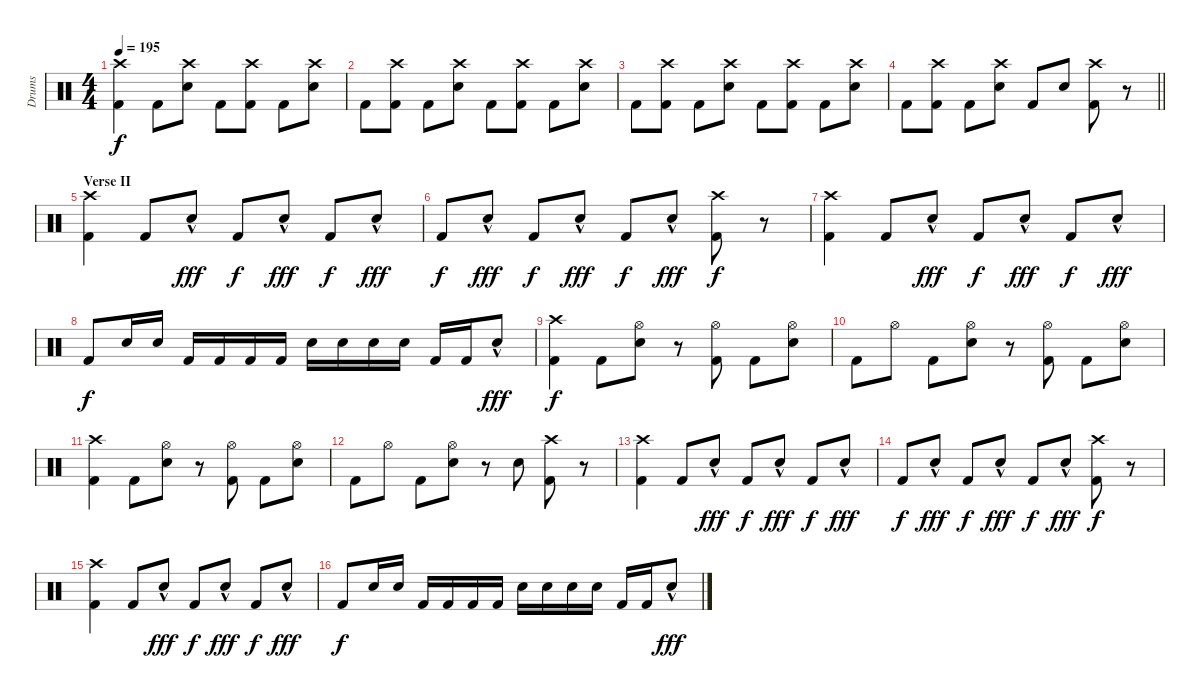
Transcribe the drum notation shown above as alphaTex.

\track ("Drums" "Drums") {instrument percussion}
\staff {score}
\articulation defaults
\ts (4 4)
\tempo 195
\clef neutral
\ks c
("Crash high (hit)" "Kick (hit) 2").4{dy f} "Kick (hit) 2".8 ("Crash high (hit)" "Electric Snare (hit)").8 "Kick (hit) 2".8 ("Crash high (hit)" "Kick (hit) 2").8 "Kick (hit) 2".8 ("Crash high (hit)" "Electric Snare (hit)").8 |
"Kick (hit) 2".8 ("Crash high (hit)" "Kick (hit) 2").8 "Kick (hit) 2".8 ("Crash high (hit)" "Electric Snare (hit)").8 "Kick (hit) 2".8 ("Crash high (hit)" "Kick (hit) 2").8 "Kick (hit) 2".8 ("Crash high (hit)" "Electric Snare (hit)").8 |
"Kick (hit) 2".8 ("Crash high (hit)" "Kick (hit) 2").8 "Kick (hit) 2".8 ("Crash high (hit)" "Electric Snare (hit)").8 "Kick (hit) 2".8 ("Crash high (hit)" "Kick (hit) 2").8 "Kick (hit) 2".8 ("Crash high (hit)" "Electric Snare (hit)").8 |
\barLineRight lightlight "Kick (hit) 2".8
("Crash high (hit)" "Kick (hit) 2").8 "Kick (hit) 2".8 ("Crash high (hit)" "Electric Snare (hit)").8 "Kick (hit) 2".8 "Electric Snare (hit)".8 ("Crash high (hit)" "Kick (hit) 2").8 r.8 |
\section ("" "Verse II")
("Crash high (hit)" "Kick (hit) 2").4 "Kick (hit) 2".8 "Electric Snare (hit)"{hac}.8{dy fff} "Kick (hit) 2".8{dy f} "Electric Snare (hit)"{hac}.8{dy fff} "Kick (hit) 2".8{dy f} "Electric Snare (hit)"{hac}.8{dy fff} |
"Kick (hit) 2".8{dy f} "Electric Snare (hit)"{hac}.8{dy fff} "Kick (hit) 2".8{dy f} "Electric Snare (hit)"{hac}.8{dy fff} "Kick (hit) 2".8{dy f} "Electric Snare (hit)"{hac}.8{dy fff} ("Crash high (hit)" "Kick (hit) 2").8{dy f} r.8 |
("Crash high (hit)" "Kick (hit) 2").4 "Kick (hit) 2".8 "Electric Snare (hit)"{hac}.8{dy fff} "Kick (hit) 2".8{dy f} "Electric Snare (hit)"{hac}.8{dy fff} "Kick (hit) 2".8{dy f} "Electric Snare (hit)"{hac}.8{dy fff} |
"Kick (hit) 2".8{dy f} "Electric Snare (hit)".16 "Electric Snare (hit)".16 "Kick (hit) 2".16 "Kick (hit) 2".16 "Kick (hit) 2".16 "Kick (hit) 2".16 "Electric Snare (hit)".16 "Electric Snare (hit)".16 "Electric Snare (hit)".16 "Electric Snare (hit)".16 "Kick (hit) 2".16 "Kick (hit) 2".16 "Electric Snare (hit)"{hac}.8{dy fff} |
("Crash high (hit)" "Kick (hit) 2").4{dy f} "Kick (hit) 2".8 ("Hi-Hat (open)" "Electric Snare (hit)").8 r.8 ("Hi-Hat (open)" "Kick (hit) 2").8 "Kick (hit) 2".8 ("Hi-Hat (open)" "Electric Snare (hit)").8 |
"Kick (hit) 2".8 "Hi-Hat (open)".8 "Kick (hit) 2".8 ("Hi-Hat (open)" "Electric Snare (hit)").8 r.8 ("Hi-Hat (open)" "Kick (hit) 2").8 "Kick (hit) 2".8 ("Hi-Hat (open)" "Electric Snare (hit)").8 |
("Crash high (hit)" "Kick (hit) 2").4 "Kick (hit) 2".8 ("Hi-Hat (open)" "Electric Snare (hit)").8 r.8 ("Hi-Hat (open)" "Kick (hit) 2").8 "Kick (hit) 2".8 ("Hi-Hat (open)" "Electric Snare (hit)").8 |
"Kick (hit) 2".8 "Hi-Hat (open)".8 "Kick (hit) 2".8 ("Hi-Hat (open)" "Electric Snare (hit)").8 r.8 "Electric Snare (hit)".8 ("Crash high (hit)" "Kick (hit) 2").8 r.8 |
("Crash high (hit)" "Kick (hit) 2").4 "Kick (hit) 2".8 "Electric Snare (hit)"{hac}.8{dy fff} "Kick (hit) 2".8{dy f} "Electric Snare (hit)"{hac}.8{dy fff} "Kick (hit) 2".8{dy f} "Electric Snare (hit)"{hac}.8{dy fff} |
"Kick (hit) 2".8{dy f} "Electric Snare (hit)"{hac}.8{dy fff} "Kick (hit) 2".8{dy f} "Electric Snare (hit)"{hac}.8{dy fff} "Kick (hit) 2".8{dy f} "Electric Snare (hit)"{hac}.8{dy fff} ("Crash high (hit)" "Kick (hit) 2").8{dy f} r.8 |
("Crash high (hit)" "Kick (hit) 2").4 "Kick (hit) 2".8 "Electric Snare (hit)"{hac}.8{dy fff} "Kick (hit) 2".8{dy f} "Electric Snare (hit)"{hac}.8{dy fff} "Kick (hit) 2".8{dy f} "Electric Snare (hit)"{hac}.8{dy fff} |
"Kick (hit) 2".8{dy f} "Electric Snare (hit)".16 "Electric Snare (hit)".16 "Kick (hit) 2".16 "Kick (hit) 2".16 "Kick (hit) 2".16 "Kick (hit) 2".16 "Electric Snare (hit)".16 "Electric Snare (hit)".16 "Electric Snare (hit)".16 "Electric Snare (hit)".16 "Kick (hit) 2".16 "Kick (hit) 2".16 "Electric Snare (hit)"{hac}.8{dy fff}
